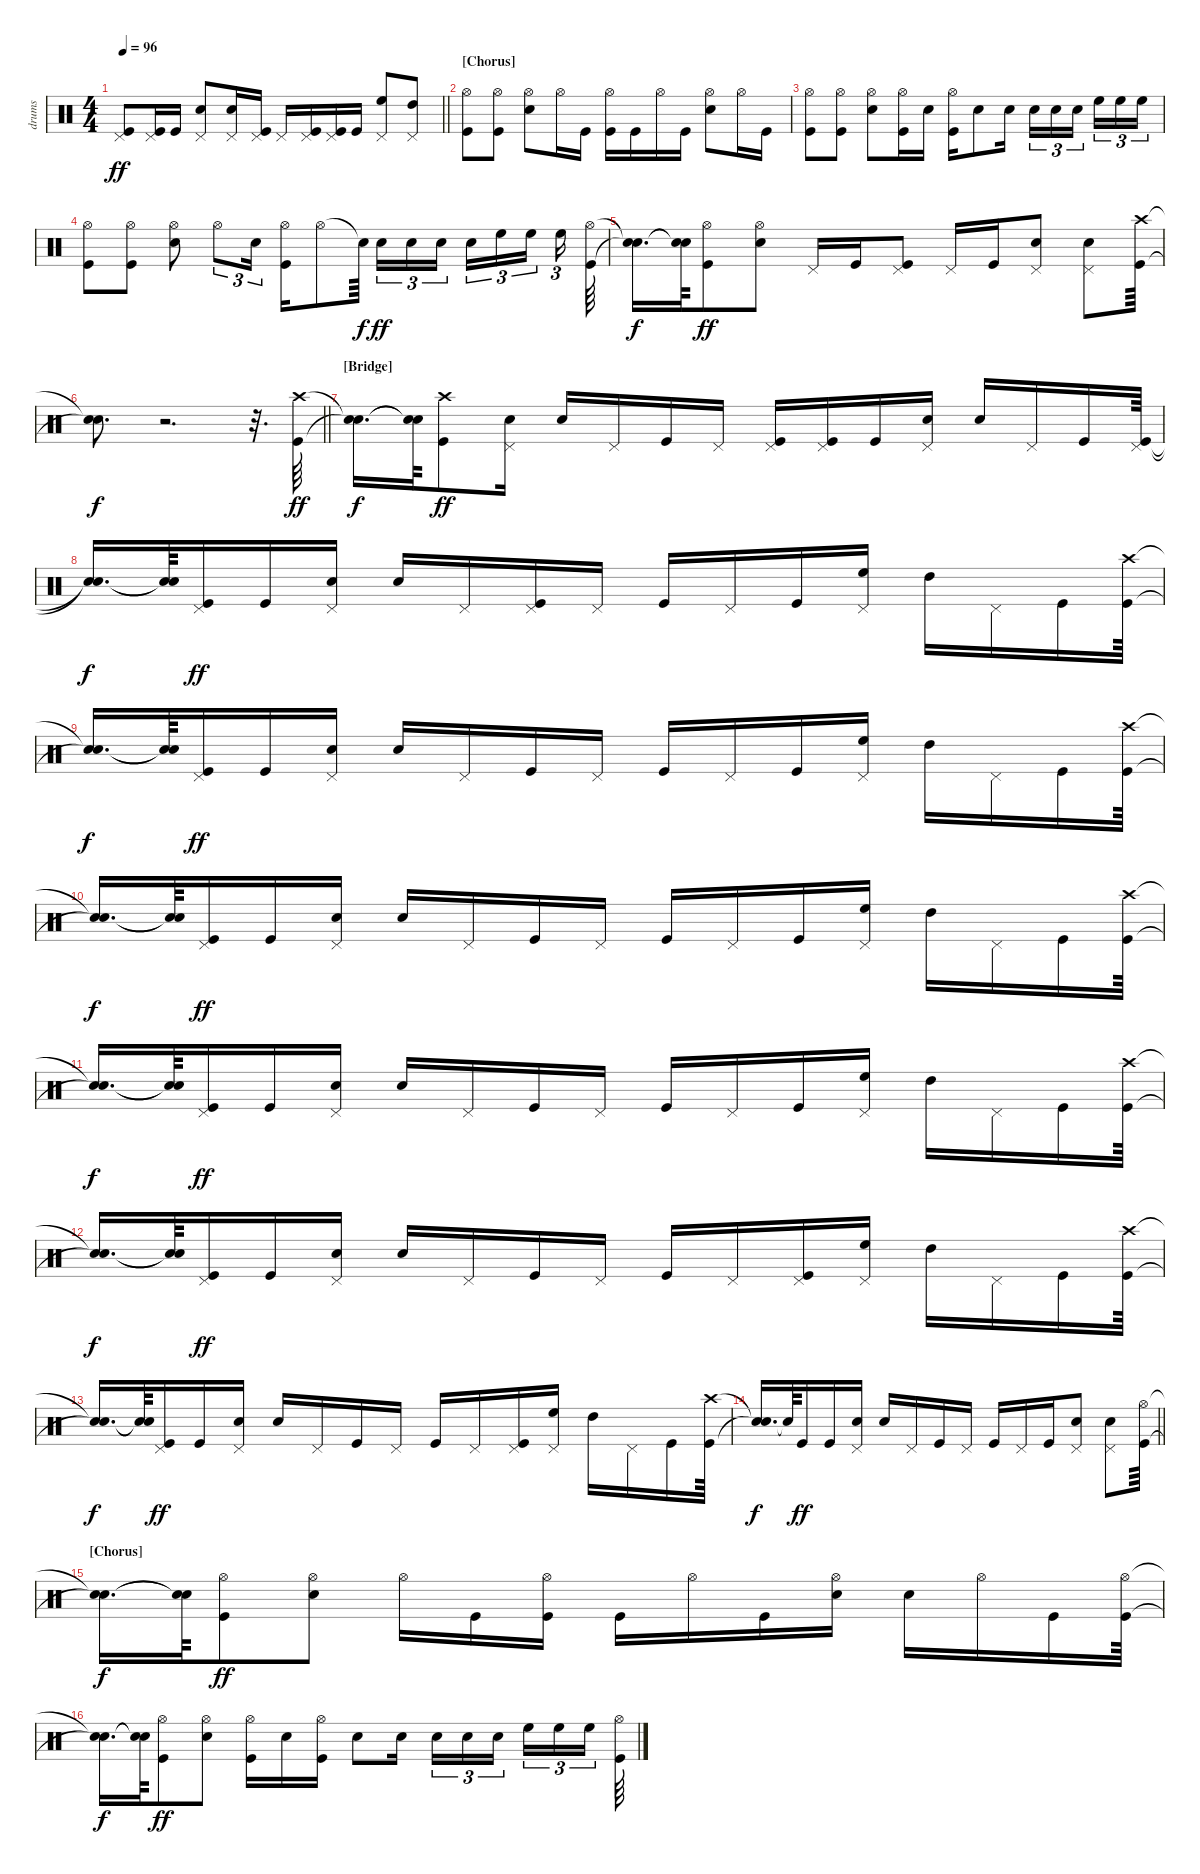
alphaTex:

\track ("drums" "drums") {instrument percussion}
\staff {score}
\articulation defaults
\ts (4 4)
\tempo 96
\clef neutral
\barLineRight lightlight
\ks c
("Pedal Hi-Hat (hit)" "Kick (hit)").8{dy ff} ("Pedal Hi-Hat (hit)" "Kick (hit)").16 "Kick (hit)".16 ("Pedal Hi-Hat (hit)" "Snare (hit) 2").8 ("Pedal Hi-Hat (hit)" "Snare (hit) 2").16 ("Pedal Hi-Hat (hit)" "Kick (hit)").16 "Pedal Hi-Hat (hit)".16 ("Pedal Hi-Hat (hit)" "Kick (hit)").16 ("Pedal Hi-Hat (hit)" "Kick (hit)").16 "Kick (hit)".16 ("Pedal Hi-Hat (hit)" "High Floor Tom (hit)").8 ("Pedal Hi-Hat (hit)" "High Tom (hit)").8 |
\section ("" "[Chorus]")
("Hi-Hat (open)" "Kick (hit)").8 ("Hi-Hat (open)" "Kick (hit)").8 ("Hi-Hat (open)" "Snare (hit) 2").8 "Hi-Hat (open)".16 "Kick (hit)".16 ("Hi-Hat (open)" "Kick (hit)").16 "Kick (hit)".16 "Hi-Hat (open)".16 "Kick (hit)".16 ("Hi-Hat (open)" "Snare (hit) 2").8 "Hi-Hat (open)".16 "Kick (hit)".16 |
("Hi-Hat (open)" "Kick (hit)").8 ("Hi-Hat (open)" "Kick (hit)").8 ("Hi-Hat (open)" "Snare (hit) 2").8 ("Hi-Hat (open)" "Kick (hit)").16 "Snare (hit) 2".16 ("Hi-Hat (open)" "Kick (hit)").16 "Snare (hit) 2".8 "Snare (hit) 2".16 "Snare (hit) 2".16{tu (3 2)} "Snare (hit) 2".16{tu (3 2)} "Snare (hit) 2".16{tu (3 2)} "High Floor Tom (hit)".16{tu (3 2)} "High Floor Tom (hit)".16{tu (3 2)} "High Floor Tom (hit)".16{tu (3 2)} |
("Hi-Hat (open)" "Kick (hit)").8 ("Hi-Hat (open)" "Kick (hit)").8 ("Hi-Hat (open)" "Snare (hit) 2").8 "Hi-Hat (open)".8{tu (3 2)} "Snare (hit) 2".16{tu (3 2)} ("Hi-Hat (open)" "Kick (hit)").16 "Hi-Hat (open)".8 "Snare (hit)"{t}.64{dy f} "Snare (hit) 2".16{tu (3 2) dy ff} "Snare (hit) 2".16{tu (3 2)} "Snare (hit) 2".16{tu (3 2)} "Snare (hit) 2".16{tu (3 2)} "High Floor Tom (hit)".16{tu (3 2)} "High Floor Tom (hit)".16{tu (3 2)} "High Floor Tom (hit)".16{tu (3 2)} ("Hi-Hat (open)" "Kick (hit)").64 |
("Snare (hit)"{t} "Snare (hit)"{t}).16{d dy f} ("Snare (hit)"{t} "Snare (hit)"{t}).64 ("Hi-Hat (open)" "Kick (hit)").8{dy ff} ("Hi-Hat (open)" "Snare (hit) 2").8 "Pedal Hi-Hat (hit)".16 "Kick (hit)".16 ("Pedal Hi-Hat (hit)" "Kick (hit)").8 "Pedal Hi-Hat (hit)".16 "Kick (hit)".16 ("Pedal Hi-Hat (hit)" "Snare (hit) 2").8 ("Pedal Hi-Hat (hit)" "Snare (hit) 2").8 ("Crash high (hit)" "Kick (hit)").64 |
\barLineRight lightlight
("Snare (hit)"{t} "Snare (hit)"{t}).8{d dy f} r.2{d} r.32{d} ("Crash high (hit)" "Kick (hit)").64{dy ff} |
\section ("" "[Bridge]")
("Snare (hit)"{t} "Snare (hit)"{t}).16{d dy f} ("Snare (hit)"{t} "Snare (hit)"{t}).64 ("Crash high (hit)" "Kick (hit)").8{dy ff} ("Pedal Hi-Hat (hit)" "Snare (hit) 2").16 "Snare (hit) 2".16 "Pedal Hi-Hat (hit)".16 "Kick (hit)".16 "Pedal Hi-Hat (hit)".16 ("Pedal Hi-Hat (hit)" "Kick (hit)").16 ("Pedal Hi-Hat (hit)" "Kick (hit)").16 "Kick (hit)".16 ("Pedal Hi-Hat (hit)" "Snare (hit) 2").16 "Snare (hit) 2".16 "Pedal Hi-Hat (hit)".16 "Kick (hit)".16 ("Pedal Hi-Hat (hit)" "Kick (hit)").64 |
("Snare (hit)"{t} "Snare (hit)"{t}).16{d dy f} ("Snare (hit)"{t} "Snare (hit)"{t}).64 ("Pedal Hi-Hat (hit)" "Kick (hit)").16{dy ff} "Kick (hit)".16 ("Pedal Hi-Hat (hit)" "Snare (hit) 2").16 "Snare (hit) 2".16 "Pedal Hi-Hat (hit)".16 ("Pedal Hi-Hat (hit)" "Kick (hit)").16 "Pedal Hi-Hat (hit)".16 "Kick (hit)".16 "Pedal Hi-Hat (hit)".16 "Kick (hit)".16 ("Pedal Hi-Hat (hit)" "High Floor Tom (hit)").16 "High Tom (hit)".16 "Pedal Hi-Hat (hit)".16 "Kick (hit)".16 ("Crash high (hit)" "Kick (hit)").64 |
("Snare (hit)"{t} "Snare (hit)"{t}).16{d dy f} ("Snare (hit)"{t} "Snare (hit)"{t}).64 ("Pedal Hi-Hat (hit)" "Kick (hit)").16{dy ff} "Kick (hit)".16 ("Pedal Hi-Hat (hit)" "Snare (hit) 2").16 "Snare (hit) 2".16 "Pedal Hi-Hat (hit)".16 "Kick (hit)".16 "Pedal Hi-Hat (hit)".16 "Kick (hit)".16 "Pedal Hi-Hat (hit)".16 "Kick (hit)".16 ("Pedal Hi-Hat (hit)" "High Floor Tom (hit)").16 "High Tom (hit)".16 "Pedal Hi-Hat (hit)".16 "Kick (hit)".16 ("Crash high (hit)" "Kick (hit)").64 |
("Snare (hit)"{t} "Snare (hit)"{t}).16{d dy f} ("Snare (hit)"{t} "Snare (hit)"{t}).64 ("Pedal Hi-Hat (hit)" "Kick (hit)").16{dy ff} "Kick (hit)".16 ("Pedal Hi-Hat (hit)" "Snare (hit) 2").16 "Snare (hit) 2".16 "Pedal Hi-Hat (hit)".16 "Kick (hit)".16 "Pedal Hi-Hat (hit)".16 "Kick (hit)".16 "Pedal Hi-Hat (hit)".16 "Kick (hit)".16 ("Pedal Hi-Hat (hit)" "High Floor Tom (hit)").16 "High Tom (hit)".16 "Pedal Hi-Hat (hit)".16 "Kick (hit)".16 ("Crash high (hit)" "Kick (hit)").64 |
("Snare (hit)"{t} "Snare (hit)"{t}).16{d dy f} ("Snare (hit)"{t} "Snare (hit)"{t}).64 ("Pedal Hi-Hat (hit)" "Kick (hit)").16{dy ff} "Kick (hit)".16 ("Pedal Hi-Hat (hit)" "Snare (hit) 2").16 "Snare (hit) 2".16 "Pedal Hi-Hat (hit)".16 "Kick (hit)".16 "Pedal Hi-Hat (hit)".16 "Kick (hit)".16 "Pedal Hi-Hat (hit)".16 "Kick (hit)".16 ("Pedal Hi-Hat (hit)" "High Floor Tom (hit)").16 "High Tom (hit)".16 "Pedal Hi-Hat (hit)".16 "Kick (hit)".16 ("Crash high (hit)" "Kick (hit)").64 |
("Snare (hit)"{t} "Snare (hit)"{t}).16{d dy f} ("Snare (hit)"{t} "Snare (hit)"{t}).64 ("Pedal Hi-Hat (hit)" "Kick (hit)").16{dy ff} "Kick (hit)".16 ("Pedal Hi-Hat (hit)" "Snare (hit) 2").16 "Snare (hit) 2".16 "Pedal Hi-Hat (hit)".16 "Kick (hit)".16 "Pedal Hi-Hat (hit)".16 "Kick (hit)".16 "Pedal Hi-Hat (hit)".16 ("Pedal Hi-Hat (hit)" "Kick (hit)").16 ("Pedal Hi-Hat (hit)" "High Floor Tom (hit)").16 "High Tom (hit)".16 "Pedal Hi-Hat (hit)".16 "Kick (hit)".16 ("Crash high (hit)" "Kick (hit)").64 |
("Snare (hit)"{t} "Snare (hit)"{t}).16{d dy f} ("Snare (hit)"{t} "Snare (hit)"{t}).64 ("Pedal Hi-Hat (hit)" "Kick (hit)").16{dy ff} "Kick (hit)".16 ("Pedal Hi-Hat (hit)" "Snare (hit) 2").16 "Snare (hit) 2".16 "Pedal Hi-Hat (hit)".16 "Kick (hit)".16 "Pedal Hi-Hat (hit)".16 "Kick (hit)".16 "Pedal Hi-Hat (hit)".16 ("Pedal Hi-Hat (hit)" "Kick (hit)").16 ("Pedal Hi-Hat (hit)" "High Floor Tom (hit)").16 "High Tom (hit)".16 "Pedal Hi-Hat (hit)".16 "Kick (hit)".16 ("Crash high (hit)" "Kick (hit)").64 |
\barLineRight lightlight
("Snare (hit)"{t} "Snare (hit)"{t}).16{d dy f} "Snare (hit)"{t}.64 "Kick (hit)".16{dy ff} "Kick (hit)".16 ("Pedal Hi-Hat (hit)" "Snare (hit) 2").16 "Snare (hit) 2".16 "Pedal Hi-Hat (hit)".16 "Kick (hit)".16 "Pedal Hi-Hat (hit)".16 "Kick (hit)".16 "Pedal Hi-Hat (hit)".16 "Kick (hit)".16 ("Pedal Hi-Hat (hit)" "Snare (hit) 2").8 ("Pedal Hi-Hat (hit)" "Snare (hit) 2").8 ("Hi-Hat (open)" "Kick (hit)").64 |
\section ("" "[Chorus]")
("Snare (hit)"{t} "Snare (hit)"{t}).16{d dy f} ("Snare (hit)"{t} "Snare (hit)"{t}).64 ("Hi-Hat (open)" "Kick (hit)").8{dy ff} ("Hi-Hat (open)" "Snare (hit) 2").8 "Hi-Hat (open)".16 "Kick (hit)".16 ("Hi-Hat (open)" "Kick (hit)").16 "Kick (hit)".16 "Hi-Hat (open)".16 "Kick (hit)".16 ("Hi-Hat (open)" "Snare (hit) 2").16 "Snare (hit) 2".16 "Hi-Hat (open)".16 "Kick (hit)".16 ("Hi-Hat (open)" "Kick (hit)").64 |
("Snare (hit)"{t} "Snare (hit)"{t}).16{d dy f} ("Snare (hit)"{t} "Snare (hit)"{t}).64 ("Hi-Hat (open)" "Kick (hit)").8{dy ff} ("Hi-Hat (open)" "Snare (hit) 2").8 ("Hi-Hat (open)" "Kick (hit)").16 "Snare (hit) 2".16 ("Hi-Hat (open)" "Kick (hit)").16 "Snare (hit) 2".8 "Snare (hit) 2".16 "Snare (hit) 2".16{tu (3 2)} "Snare (hit) 2".16{tu (3 2)} "Snare (hit) 2".16{tu (3 2)} "High Floor Tom (hit)".16{tu (3 2)} "High Floor Tom (hit)".16{tu (3 2)} "High Floor Tom (hit)".16{tu (3 2)} ("Hi-Hat (open)" "Kick (hit)").64
